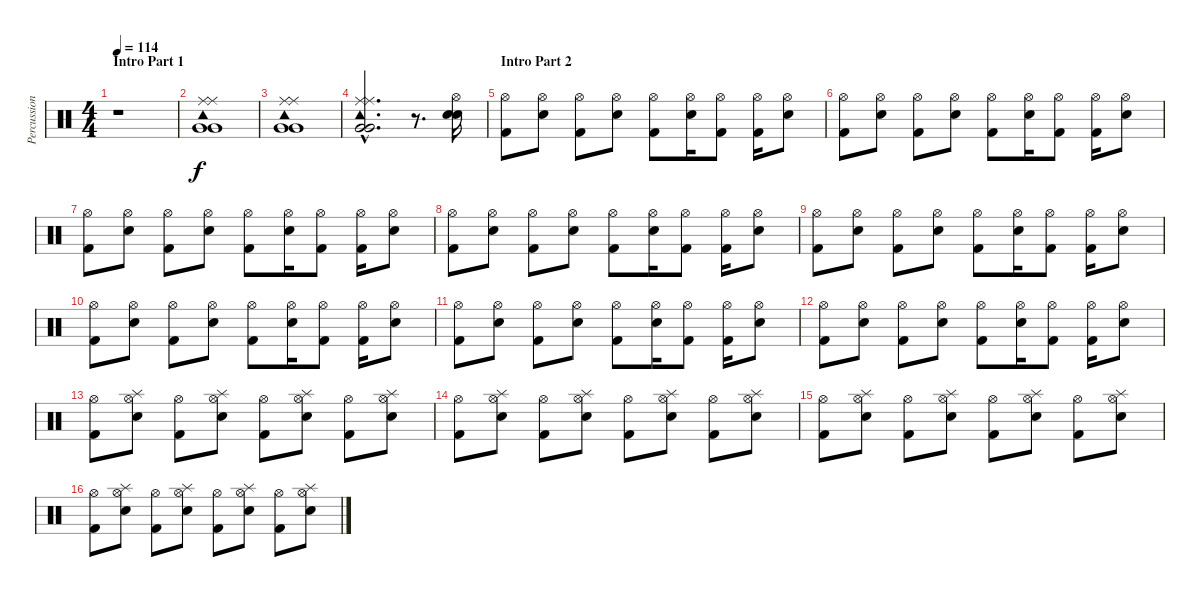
\track ("Percussion" "Percussion") {instrument percussion}
\staff {score}
\articulation defaults
\ts (4 4)
\section ("" "Intro Part 1")
\tempo 114
\clef neutral
\ks c
r.1{dy f} |
("Tambourine (hit)" "Ride (middle)" "Ride (middle)" "Very Low Tom (hit)" "Very Low Tom (hit)").1 |
("Tambourine (hit)" "Ride (middle)" "Ride (middle)" "Very Low Tom (hit)" "Very Low Tom (hit)").1 |
("Tambourine (hit)"{hac} "Ride (middle)"{hac} "Ride (middle)"{hac} "Very Low Tom (hit)"{hac} "Very Low Tom (hit)"{hac}).2{d} r.8{d} ("Hi-Hat (open)" "Snare (hit) 2" "Snare (hit) 2").16 |
\section ("" "Intro Part 2")
("Hi-Hat (open)" "Kick (hit) 2").8 ("Hi-Hat (open)" "Snare (hit) 2").8 ("Hi-Hat (open)" "Kick (hit) 2").8 ("Hi-Hat (open)" "Snare (hit) 2").8 ("Hi-Hat (open)" "Kick (hit) 2").8 ("Hi-Hat (open)" "Snare (hit) 2").16 ("Hi-Hat (open)" "Kick (hit) 2").8 ("Hi-Hat (open)" "Kick (hit) 2").16 ("Hi-Hat (open)" "Snare (hit) 2").8 |
("Hi-Hat (open)" "Kick (hit) 2").8 ("Hi-Hat (open)" "Snare (hit) 2").8 ("Hi-Hat (open)" "Kick (hit) 2").8 ("Hi-Hat (open)" "Snare (hit) 2").8 ("Hi-Hat (open)" "Kick (hit) 2").8 ("Hi-Hat (open)" "Snare (hit) 2").16 ("Hi-Hat (open)" "Kick (hit) 2").8 ("Hi-Hat (open)" "Kick (hit) 2").16 ("Hi-Hat (open)" "Snare (hit) 2").8 |
("Hi-Hat (open)" "Kick (hit) 2").8 ("Hi-Hat (open)" "Snare (hit) 2").8 ("Hi-Hat (open)" "Kick (hit) 2").8 ("Hi-Hat (open)" "Snare (hit) 2").8 ("Hi-Hat (open)" "Kick (hit) 2").8 ("Hi-Hat (open)" "Snare (hit) 2").16 ("Hi-Hat (open)" "Kick (hit) 2").8 ("Hi-Hat (open)" "Kick (hit) 2").16 ("Hi-Hat (open)" "Snare (hit) 2").8 |
("Hi-Hat (open)" "Kick (hit) 2").8 ("Hi-Hat (open)" "Snare (hit) 2").8 ("Hi-Hat (open)" "Kick (hit) 2").8 ("Hi-Hat (open)" "Snare (hit) 2").8 ("Hi-Hat (open)" "Kick (hit) 2").8 ("Hi-Hat (open)" "Snare (hit) 2").16 ("Hi-Hat (open)" "Kick (hit) 2").8 ("Hi-Hat (open)" "Kick (hit) 2").16 ("Hi-Hat (open)" "Snare (hit) 2").8 |
("Hi-Hat (open)" "Kick (hit) 2").8 ("Hi-Hat (open)" "Snare (hit) 2").8 ("Hi-Hat (open)" "Kick (hit) 2").8 ("Hi-Hat (open)" "Snare (hit) 2").8 ("Hi-Hat (open)" "Kick (hit) 2").8 ("Hi-Hat (open)" "Snare (hit) 2").16 ("Hi-Hat (open)" "Kick (hit) 2").8 ("Hi-Hat (open)" "Kick (hit) 2").16 ("Hi-Hat (open)" "Snare (hit) 2").8 |
("Hi-Hat (open)" "Kick (hit) 2").8 ("Hi-Hat (open)" "Snare (hit) 2").8 ("Hi-Hat (open)" "Kick (hit) 2").8 ("Hi-Hat (open)" "Snare (hit) 2").8 ("Hi-Hat (open)" "Kick (hit) 2").8 ("Hi-Hat (open)" "Snare (hit) 2").16 ("Hi-Hat (open)" "Kick (hit) 2").8 ("Hi-Hat (open)" "Kick (hit) 2").16 ("Hi-Hat (open)" "Snare (hit) 2").8 |
("Hi-Hat (open)" "Kick (hit) 2").8 ("Hi-Hat (open)" "Snare (hit) 2").8 ("Hi-Hat (open)" "Kick (hit) 2").8 ("Hi-Hat (open)" "Snare (hit) 2").8 ("Hi-Hat (open)" "Kick (hit) 2").8 ("Hi-Hat (open)" "Snare (hit) 2").16 ("Hi-Hat (open)" "Kick (hit) 2").8 ("Hi-Hat (open)" "Kick (hit) 2").16 ("Hi-Hat (open)" "Snare (hit) 2").8 |
("Hi-Hat (open)" "Kick (hit) 2").8 ("Hi-Hat (open)" "Snare (hit) 2").8 ("Hi-Hat (open)" "Kick (hit) 2").8 ("Hi-Hat (open)" "Snare (hit) 2").8 ("Hi-Hat (open)" "Kick (hit) 2").8 ("Hi-Hat (open)" "Snare (hit) 2").16 ("Hi-Hat (open)" "Kick (hit) 2").8 ("Hi-Hat (open)" "Kick (hit) 2").16 ("Hi-Hat (open)" "Snare (hit) 2").8 |
("Hi-Hat (open)" "Kick (hit) 2").8 ("Splash (hit)" "Hi-Hat (open)" "Snare (hit) 2").8 ("Hi-Hat (open)" "Kick (hit) 2").8 ("Splash (hit)" "Hi-Hat (open)" "Snare (hit) 2").8 ("Hi-Hat (open)" "Kick (hit) 2").8 ("Splash (hit)" "Hi-Hat (open)" "Snare (hit) 2").8 ("Hi-Hat (open)" "Kick (hit) 2").8 ("Splash (hit)" "Hi-Hat (open)" "Snare (hit) 2").8 |
("Hi-Hat (open)" "Kick (hit) 2").8 ("Splash (hit)" "Hi-Hat (open)" "Snare (hit) 2").8 ("Hi-Hat (open)" "Kick (hit) 2").8 ("Splash (hit)" "Hi-Hat (open)" "Snare (hit) 2").8 ("Hi-Hat (open)" "Kick (hit) 2").8 ("Splash (hit)" "Hi-Hat (open)" "Snare (hit) 2").8 ("Hi-Hat (open)" "Kick (hit) 2").8 ("Splash (hit)" "Hi-Hat (open)" "Snare (hit) 2").8 |
("Hi-Hat (open)" "Kick (hit) 2").8 ("Splash (hit)" "Hi-Hat (open)" "Snare (hit) 2").8 ("Hi-Hat (open)" "Kick (hit) 2").8 ("Splash (hit)" "Hi-Hat (open)" "Snare (hit) 2").8 ("Hi-Hat (open)" "Kick (hit) 2").8 ("Splash (hit)" "Hi-Hat (open)" "Snare (hit) 2").8 ("Hi-Hat (open)" "Kick (hit) 2").8 ("Splash (hit)" "Hi-Hat (open)" "Snare (hit) 2").8 |
("Hi-Hat (open)" "Kick (hit) 2").8 ("Splash (hit)" "Hi-Hat (open)" "Snare (hit) 2").8 ("Hi-Hat (open)" "Kick (hit) 2").8 ("Splash (hit)" "Hi-Hat (open)" "Snare (hit) 2").8 ("Hi-Hat (open)" "Kick (hit) 2").8 ("Splash (hit)" "Hi-Hat (open)" "Snare (hit) 2").8 ("Hi-Hat (open)" "Kick (hit) 2").8 ("Splash (hit)" "Hi-Hat (open)" "Snare (hit) 2").8
